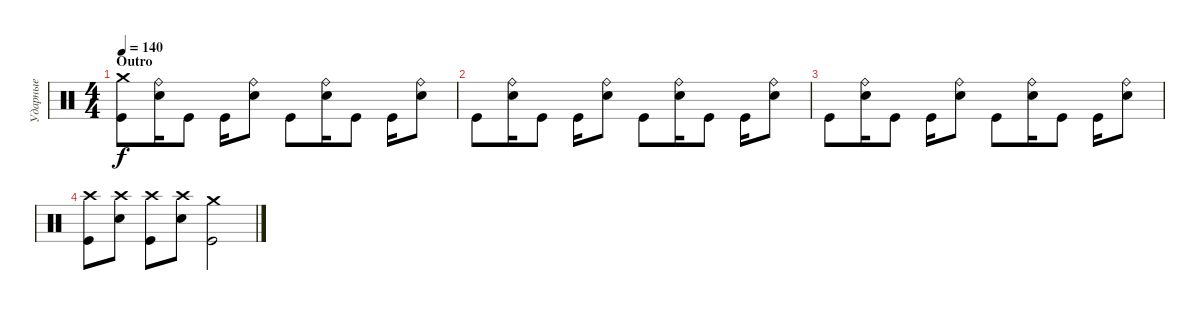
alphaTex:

\track ("Ударные" "Ударные") {instrument percussion}
\staff {score}
\articulation defaults
\ts (4 4)
\section ("" "Outro")
\tempo 140
\clef neutral
\ks c
("Crash medium (hit)" "Kick (hit)").8{dy f} ("Ride (bell)" "Electric Snare (hit)").16 "Kick (hit)".8 "Kick (hit)".16 ("Ride (bell)" "Electric Snare (hit)").8 "Kick (hit)".8 ("Ride (bell)" "Electric Snare (hit)").16 "Kick (hit)".8 "Kick (hit)".16 ("Ride (bell)" "Electric Snare (hit)").8 |
"Kick (hit)".8 ("Ride (bell)" "Electric Snare (hit)").16 "Kick (hit)".8 "Kick (hit)".16 ("Ride (bell)" "Electric Snare (hit)").8 "Kick (hit)".8 ("Ride (bell)" "Electric Snare (hit)").16 "Kick (hit)".8 "Kick (hit)".16 ("Ride (bell)" "Electric Snare (hit)").8 |
"Kick (hit)".8 ("Ride (bell)" "Electric Snare (hit)").16 "Kick (hit)".8 "Kick (hit)".16 ("Ride (bell)" "Electric Snare (hit)").8 "Kick (hit)".8 ("Ride (bell)" "Electric Snare (hit)").16 "Kick (hit)".8 "Kick (hit)".16 ("Ride (bell)" "Electric Snare (hit)").8 |
("Crash high (hit)" "Kick (hit)").8 ("Crash high (hit)" "Electric Snare (hit)").8 ("Crash high (hit)" "Kick (hit)").8 ("Crash high (hit)" "Electric Snare (hit)").8 ("Crash medium (hit)" "Kick (hit)").2
